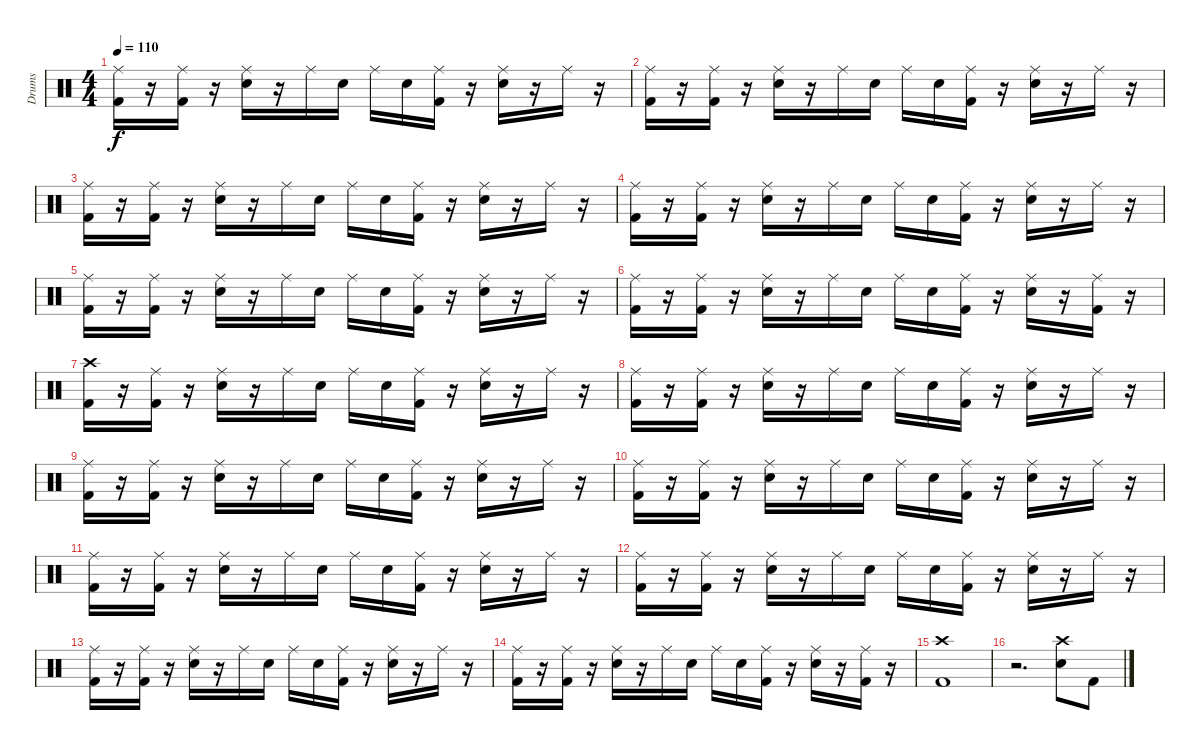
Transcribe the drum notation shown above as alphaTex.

\track ("Drums" "Drums") {instrument percussion}
\staff {score}
\articulation defaults
\ts (4 4)
\tempo 110
\clef neutral
\ks c
("Ride (middle)" "Kick (hit) 2").16{dy f} r.16 ("Ride (middle)" "Kick (hit) 2").16 r.16 ("Ride (middle)" "Electric Snare (hit)").16 r.16 "Ride (middle)".16 "Electric Snare (hit)".16 "Ride (middle)".16 "Electric Snare (hit)".16 ("Ride (middle)" "Kick (hit) 2").16 r.16 ("Ride (middle)" "Electric Snare (hit)").16 r.16 "Ride (middle)".16 r.16 |
("Ride (middle)" "Kick (hit) 2").16 r.16 ("Ride (middle)" "Kick (hit) 2").16 r.16 ("Ride (middle)" "Electric Snare (hit)").16 r.16 "Ride (middle)".16 "Electric Snare (hit)".16 "Ride (middle)".16 "Electric Snare (hit)".16 ("Ride (middle)" "Kick (hit) 2").16 r.16 ("Ride (middle)" "Electric Snare (hit)").16 r.16 "Ride (middle)".16 r.16 |
("Ride (middle)" "Kick (hit) 2").16 r.16 ("Ride (middle)" "Kick (hit) 2").16 r.16 ("Ride (middle)" "Electric Snare (hit)").16 r.16 "Ride (middle)".16 "Electric Snare (hit)".16 "Ride (middle)".16 "Electric Snare (hit)".16 ("Ride (middle)" "Kick (hit) 2").16 r.16 ("Ride (middle)" "Electric Snare (hit)").16 r.16 "Ride (middle)".16 r.16 |
("Ride (middle)" "Kick (hit) 2").16 r.16 ("Ride (middle)" "Kick (hit) 2").16 r.16 ("Ride (middle)" "Electric Snare (hit)").16 r.16 "Ride (middle)".16 "Electric Snare (hit)".16 "Ride (middle)".16 "Electric Snare (hit)".16 ("Ride (middle)" "Kick (hit) 2").16 r.16 ("Ride (middle)" "Electric Snare (hit)").16 r.16 "Ride (middle)".16 r.16 |
("Ride (middle)" "Kick (hit) 2").16 r.16 ("Ride (middle)" "Kick (hit) 2").16 r.16 ("Ride (middle)" "Electric Snare (hit)").16 r.16 "Ride (middle)".16 "Electric Snare (hit)".16 "Ride (middle)".16 "Electric Snare (hit)".16 ("Ride (middle)" "Kick (hit) 2").16 r.16 ("Ride (middle)" "Electric Snare (hit)").16 r.16 "Ride (middle)".16 r.16 |
("Ride (middle)" "Kick (hit) 2").16 r.16 ("Ride (middle)" "Kick (hit) 2").16 r.16 ("Ride (middle)" "Electric Snare (hit)").16 r.16 "Ride (middle)".16 "Electric Snare (hit)".16 "Ride (middle)".16 "Electric Snare (hit)".16 ("Ride (middle)" "Kick (hit) 2").16 r.16 ("Ride (middle)" "Electric Snare (hit)").16 r.16 ("Ride (middle)" "Kick (hit) 2").16 r.16 |
("Crash high (hit)" "Kick (hit) 2").16 r.16 ("Ride (middle)" "Kick (hit) 2").16 r.16 ("Ride (middle)" "Electric Snare (hit)").16 r.16 "Ride (middle)".16 "Electric Snare (hit)".16 "Ride (middle)".16 "Electric Snare (hit)".16 ("Ride (middle)" "Kick (hit) 2").16 r.16 ("Ride (middle)" "Electric Snare (hit)").16 r.16 "Ride (middle)".16 r.16 |
("Ride (middle)" "Kick (hit) 2").16 r.16 ("Ride (middle)" "Kick (hit) 2").16 r.16 ("Ride (middle)" "Electric Snare (hit)").16 r.16 "Ride (middle)".16 "Electric Snare (hit)".16 "Ride (middle)".16 "Electric Snare (hit)".16 ("Ride (middle)" "Kick (hit) 2").16 r.16 ("Ride (middle)" "Electric Snare (hit)").16 r.16 "Ride (middle)".16 r.16 |
("Ride (middle)" "Kick (hit) 2").16 r.16 ("Ride (middle)" "Kick (hit) 2").16 r.16 ("Ride (middle)" "Electric Snare (hit)").16 r.16 "Ride (middle)".16 "Electric Snare (hit)".16 "Ride (middle)".16 "Electric Snare (hit)".16 ("Ride (middle)" "Kick (hit) 2").16 r.16 ("Ride (middle)" "Electric Snare (hit)").16 r.16 "Ride (middle)".16 r.16 |
("Ride (middle)" "Kick (hit) 2").16 r.16 ("Ride (middle)" "Kick (hit) 2").16 r.16 ("Ride (middle)" "Electric Snare (hit)").16 r.16 "Ride (middle)".16 "Electric Snare (hit)".16 "Ride (middle)".16 "Electric Snare (hit)".16 ("Ride (middle)" "Kick (hit) 2").16 r.16 ("Ride (middle)" "Electric Snare (hit)").16 r.16 "Ride (middle)".16 r.16 |
("Ride (middle)" "Kick (hit) 2").16 r.16 ("Ride (middle)" "Kick (hit) 2").16 r.16 ("Ride (middle)" "Electric Snare (hit)").16 r.16 "Ride (middle)".16 "Electric Snare (hit)".16 "Ride (middle)".16 "Electric Snare (hit)".16 ("Ride (middle)" "Kick (hit) 2").16 r.16 ("Ride (middle)" "Electric Snare (hit)").16 r.16 "Ride (middle)".16 r.16 |
("Ride (middle)" "Kick (hit) 2").16 r.16 ("Ride (middle)" "Kick (hit) 2").16 r.16 ("Ride (middle)" "Electric Snare (hit)").16 r.16 "Ride (middle)".16 "Electric Snare (hit)".16 "Ride (middle)".16 "Electric Snare (hit)".16 ("Ride (middle)" "Kick (hit) 2").16 r.16 ("Ride (middle)" "Electric Snare (hit)").16 r.16 "Ride (middle)".16 r.16 |
("Ride (middle)" "Kick (hit) 2").16 r.16 ("Ride (middle)" "Kick (hit) 2").16 r.16 ("Ride (middle)" "Electric Snare (hit)").16 r.16 "Ride (middle)".16 "Electric Snare (hit)".16 "Ride (middle)".16 "Electric Snare (hit)".16 ("Ride (middle)" "Kick (hit) 2").16 r.16 ("Ride (middle)" "Electric Snare (hit)").16 r.16 "Ride (middle)".16 r.16 |
("Ride (middle)" "Kick (hit) 2").16 r.16 ("Ride (middle)" "Kick (hit) 2").16 r.16 ("Ride (middle)" "Electric Snare (hit)").16 r.16 "Ride (middle)".16 "Electric Snare (hit)".16 "Ride (middle)".16 "Electric Snare (hit)".16 ("Ride (middle)" "Kick (hit) 2").16 r.16 ("Ride (middle)" "Electric Snare (hit)").16 r.16 ("Ride (middle)" "Kick (hit) 2").16 r.16 |
("Crash high (hit)" "Kick (hit) 2").1 |
r.2{d} ("Crash high (hit)" "Electric Snare (hit)").8 "Kick (hit) 2".8
